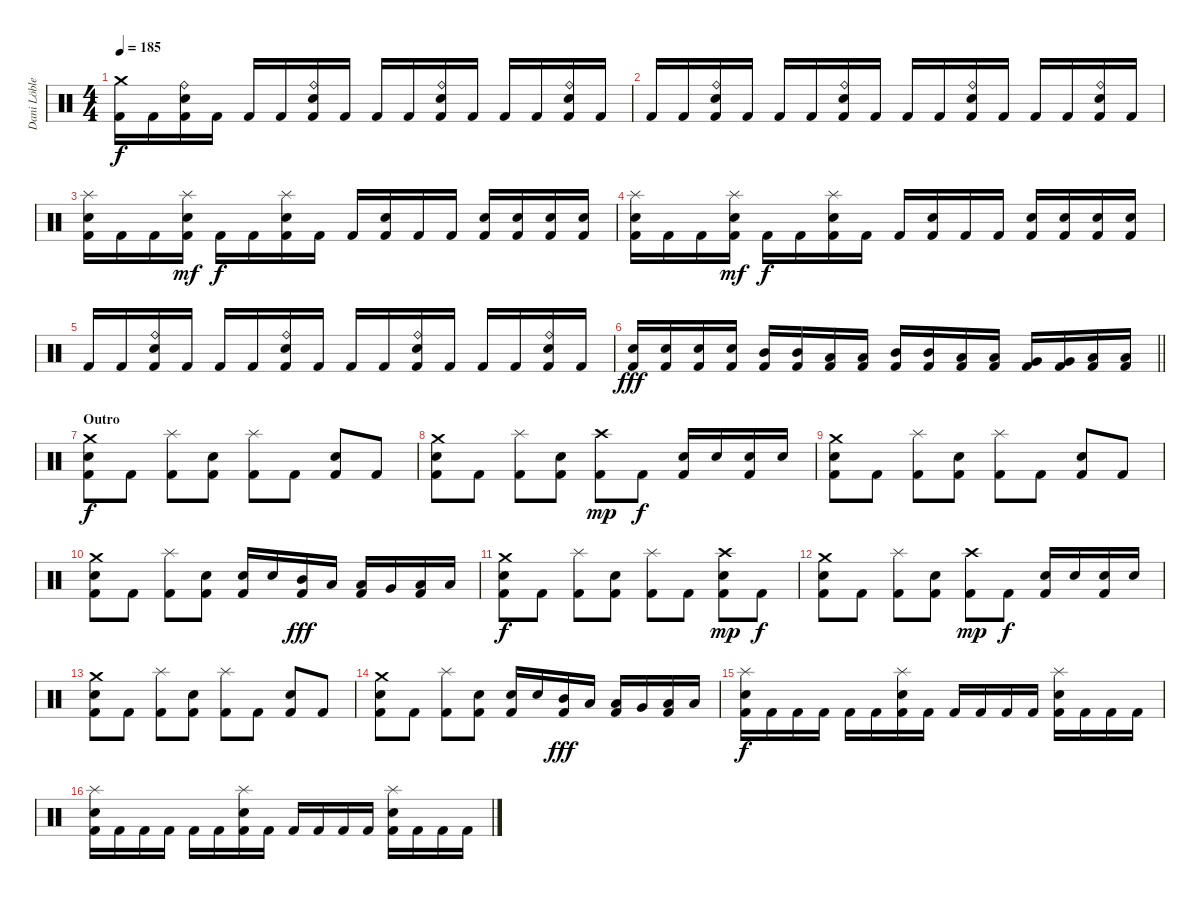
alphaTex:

\track ("Dani Löble" "Dani Löble") {instrument percussion}
\staff {score}
\articulation defaults
\ts (4 4)
\tempo 185
\clef neutral
\ks c
("Crash medium (hit)" "Kick (hit) 2").16{dy f} "Kick (hit) 2".16 ("Ride (bell)" "Electric Snare (hit)" "Kick (hit) 2").16 "Kick (hit) 2".16 "Kick (hit) 2".16 "Kick (hit) 2".16 ("Ride (bell)" "Electric Snare (hit)" "Kick (hit) 2").16 "Kick (hit) 2".16 "Kick (hit) 2".16 "Kick (hit) 2".16 ("Ride (bell)" "Electric Snare (hit)" "Kick (hit) 2").16 "Kick (hit) 2".16 "Kick (hit) 2".16 "Kick (hit) 2".16 ("Ride (bell)" "Electric Snare (hit)" "Kick (hit) 2").16 "Kick (hit) 2".16 |
"Kick (hit) 2".16 "Kick (hit) 2".16 ("Ride (bell)" "Electric Snare (hit)" "Kick (hit) 2").16 "Kick (hit) 2".16 "Kick (hit) 2".16 "Kick (hit) 2".16 ("Ride (bell)" "Electric Snare (hit)" "Kick (hit) 2").16 "Kick (hit) 2".16 "Kick (hit) 2".16 "Kick (hit) 2".16 ("Ride (bell)" "Electric Snare (hit)" "Kick (hit) 2").16 "Kick (hit) 2".16 "Kick (hit) 2".16 "Kick (hit) 2".16 ("Ride (bell)" "Electric Snare (hit)" "Kick (hit) 2").16 "Kick (hit) 2".16 |
("Splash (hit)" "Electric Snare (hit)" "Kick (hit) 2").16 "Kick (hit) 2".16 "Kick (hit) 2".16 ("Splash (hit)" "Electric Snare (hit)" "Kick (hit) 2").16{dy mf} "Kick (hit) 2".16{dy f} "Kick (hit) 2".16 ("Splash (hit)" "Electric Snare (hit)" "Kick (hit) 2").16 "Kick (hit) 2".16 "Kick (hit) 2".16 ("Electric Snare (hit)" "Kick (hit) 2").16 "Kick (hit) 2".16 "Kick (hit) 2".16 ("Electric Snare (hit)" "Kick (hit) 2").16 ("Electric Snare (hit)" "Kick (hit) 2").16 ("Electric Snare (hit)" "Kick (hit) 2").16 ("Electric Snare (hit)" "Kick (hit) 2").16 |
("Splash (hit)" "Electric Snare (hit)" "Kick (hit) 2").16 "Kick (hit) 2".16 "Kick (hit) 2".16 ("Splash (hit)" "Electric Snare (hit)" "Kick (hit) 2").16{dy mf} "Kick (hit) 2".16{dy f} "Kick (hit) 2".16 ("Splash (hit)" "Electric Snare (hit)" "Kick (hit) 2").16 "Kick (hit) 2".16 "Kick (hit) 2".16 ("Electric Snare (hit)" "Kick (hit) 2").16 "Kick (hit) 2".16 "Kick (hit) 2".16 ("Electric Snare (hit)" "Kick (hit) 2").16 ("Electric Snare (hit)" "Kick (hit) 2").16 ("Electric Snare (hit)" "Kick (hit) 2").16 ("Electric Snare (hit)" "Kick (hit) 2").16 |
"Kick (hit) 2".16 "Kick (hit) 2".16 ("Ride (bell)" "Electric Snare (hit)" "Kick (hit) 2").16 "Kick (hit) 2".16 "Kick (hit) 2".16 "Kick (hit) 2".16 ("Ride (bell)" "Electric Snare (hit)" "Kick (hit) 2").16 "Kick (hit) 2".16 "Kick (hit) 2".16 "Kick (hit) 2".16 ("Ride (bell)" "Electric Snare (hit)" "Kick (hit) 2").16 "Kick (hit) 2".16 "Kick (hit) 2".16 "Kick (hit) 2".16 ("Ride (bell)" "Electric Snare (hit)" "Kick (hit) 2").16 "Kick (hit) 2".16 |
\barLineRight lightlight
("Electric Snare (hit)" "Kick (hit) 2").16{dy fff} ("Electric Snare (hit)" "Kick (hit) 2").16 ("Electric Snare (hit)" "Kick (hit) 2").16 ("Electric Snare (hit)" "Kick (hit) 2").16 ("Mid Tom (hit)" "Kick (hit) 2").16 ("Mid Tom (hit)" "Kick (hit) 2").16 ("Low Tom (hit)" "Kick (hit) 2").16 ("Low Tom (hit)" "Kick (hit) 2").16 ("Mid Tom (hit)" "Kick (hit) 2").16 ("Mid Tom (hit)" "Kick (hit) 2").16 ("Low Tom (hit)" "Kick (hit) 2").16 ("Low Tom (hit)" "Kick (hit) 2").16 ("Very Low Tom (hit)" "Kick (hit) 2").16 ("Very Low Tom (hit)" "Kick (hit) 2").16 ("Low Floor Tom (hit)" "Kick (hit) 2").16 ("Low Floor Tom (hit)" "Kick (hit) 2").16 |
\section ("" "Outro")
("Crash medium (hit)" "Electric Snare (hit)" "Kick (hit) 2").8{dy f} "Kick (hit) 2".8 ("Splash (hit)" "Kick (hit) 2").8 ("Electric Snare (hit)" "Kick (hit) 2").8 ("Splash (hit)" "Kick (hit) 2").8 "Kick (hit) 2".8 ("Electric Snare (hit)" "Kick (hit) 2").8 "Kick (hit) 2".8 |
("Crash medium (hit)" "Electric Snare (hit)" "Kick (hit) 2").8 "Kick (hit) 2".8 ("Splash (hit)" "Kick (hit) 2").8 ("Electric Snare (hit)" "Kick (hit) 2").8 ("Crash high (hit)" "Kick (hit) 2").8{dy mp} "Kick (hit) 2".8{dy f} ("Electric Snare (hit)" "Kick (hit) 2").16 "Electric Snare (hit)".16 ("Electric Snare (hit)" "Kick (hit) 2").16 "Electric Snare (hit)".16 |
("Crash medium (hit)" "Electric Snare (hit)" "Kick (hit) 2").8 "Kick (hit) 2".8 ("Splash (hit)" "Kick (hit) 2").8 ("Electric Snare (hit)" "Kick (hit) 2").8 ("Splash (hit)" "Kick (hit) 2").8 "Kick (hit) 2".8 ("Electric Snare (hit)" "Kick (hit) 2").8 "Kick (hit) 2".8 |
("Crash medium (hit)" "Electric Snare (hit)" "Kick (hit) 2").8 "Kick (hit) 2".8 ("Splash (hit)" "Kick (hit) 2").8 ("Electric Snare (hit)" "Kick (hit) 2").8 ("Electric Snare (hit)" "Kick (hit) 2").16 "Electric Snare (hit)".16 ("Mid Tom (hit)" "Kick (hit) 2").16{dy fff} "Low Tom (hit)".16 ("Low Tom (hit)" "Kick (hit) 2").16 "Very Low Tom (hit)".16 ("Low Floor Tom (hit)" "Kick (hit) 2").16 "Low Floor Tom (hit)".16 |
("Crash medium (hit)" "Electric Snare (hit)" "Kick (hit) 2").8{dy f} "Kick (hit) 2".8 ("Splash (hit)" "Kick (hit) 2").8 ("Electric Snare (hit)" "Kick (hit) 2").8 ("Splash (hit)" "Kick (hit) 2").8 "Kick (hit) 2".8 ("Crash high (hit)" "Electric Snare (hit)" "Kick (hit) 2").8{dy mp} "Kick (hit) 2".8{dy f} |
("Crash medium (hit)" "Electric Snare (hit)" "Kick (hit) 2").8 "Kick (hit) 2".8 ("Splash (hit)" "Kick (hit) 2").8 ("Electric Snare (hit)" "Kick (hit) 2").8 ("Crash high (hit)" "Kick (hit) 2").8{dy mp} "Kick (hit) 2".8{dy f} ("Electric Snare (hit)" "Kick (hit) 2").16 "Electric Snare (hit)".16 ("Electric Snare (hit)" "Kick (hit) 2").16 "Electric Snare (hit)".16 |
("Crash medium (hit)" "Electric Snare (hit)" "Kick (hit) 2").8 "Kick (hit) 2".8 ("Splash (hit)" "Kick (hit) 2").8 ("Electric Snare (hit)" "Kick (hit) 2").8 ("Splash (hit)" "Kick (hit) 2").8 "Kick (hit) 2".8 ("Electric Snare (hit)" "Kick (hit) 2").8 "Kick (hit) 2".8 |
("Crash medium (hit)" "Electric Snare (hit)" "Kick (hit) 2").8 "Kick (hit) 2".8 ("Splash (hit)" "Kick (hit) 2").8 ("Electric Snare (hit)" "Kick (hit) 2").8 ("Electric Snare (hit)" "Kick (hit) 2").16 "Electric Snare (hit)".16 ("Mid Tom (hit)" "Kick (hit) 2").16{dy fff} "Low Tom (hit)".16 ("Low Tom (hit)" "Kick (hit) 2").16 "Very Low Tom (hit)".16 ("Low Floor Tom (hit)" "Kick (hit) 2").16 "Low Floor Tom (hit)".16 |
("Splash (hit)" "Electric Snare (hit)" "Kick (hit) 2").16{dy f} "Kick (hit) 2".16 "Kick (hit) 2".16 "Kick (hit) 2".16 "Kick (hit) 2".16 "Kick (hit) 2".16 ("Splash (hit)" "Electric Snare (hit)" "Kick (hit) 2").16 "Kick (hit) 2".16 "Kick (hit) 2".16 "Kick (hit) 2".16 "Kick (hit) 2".16 "Kick (hit) 2".16 ("Splash (hit)" "Electric Snare (hit)" "Kick (hit) 2").16 "Kick (hit) 2".16 "Kick (hit) 2".16 "Kick (hit) 2".16 |
("Splash (hit)" "Electric Snare (hit)" "Kick (hit) 2").16 "Kick (hit) 2".16 "Kick (hit) 2".16 "Kick (hit) 2".16 "Kick (hit) 2".16 "Kick (hit) 2".16 ("Splash (hit)" "Electric Snare (hit)" "Kick (hit) 2").16 "Kick (hit) 2".16 "Kick (hit) 2".16 "Kick (hit) 2".16 "Kick (hit) 2".16 "Kick (hit) 2".16 ("Splash (hit)" "Electric Snare (hit)" "Kick (hit) 2").16 "Kick (hit) 2".16 "Kick (hit) 2".16 "Kick (hit) 2".16
